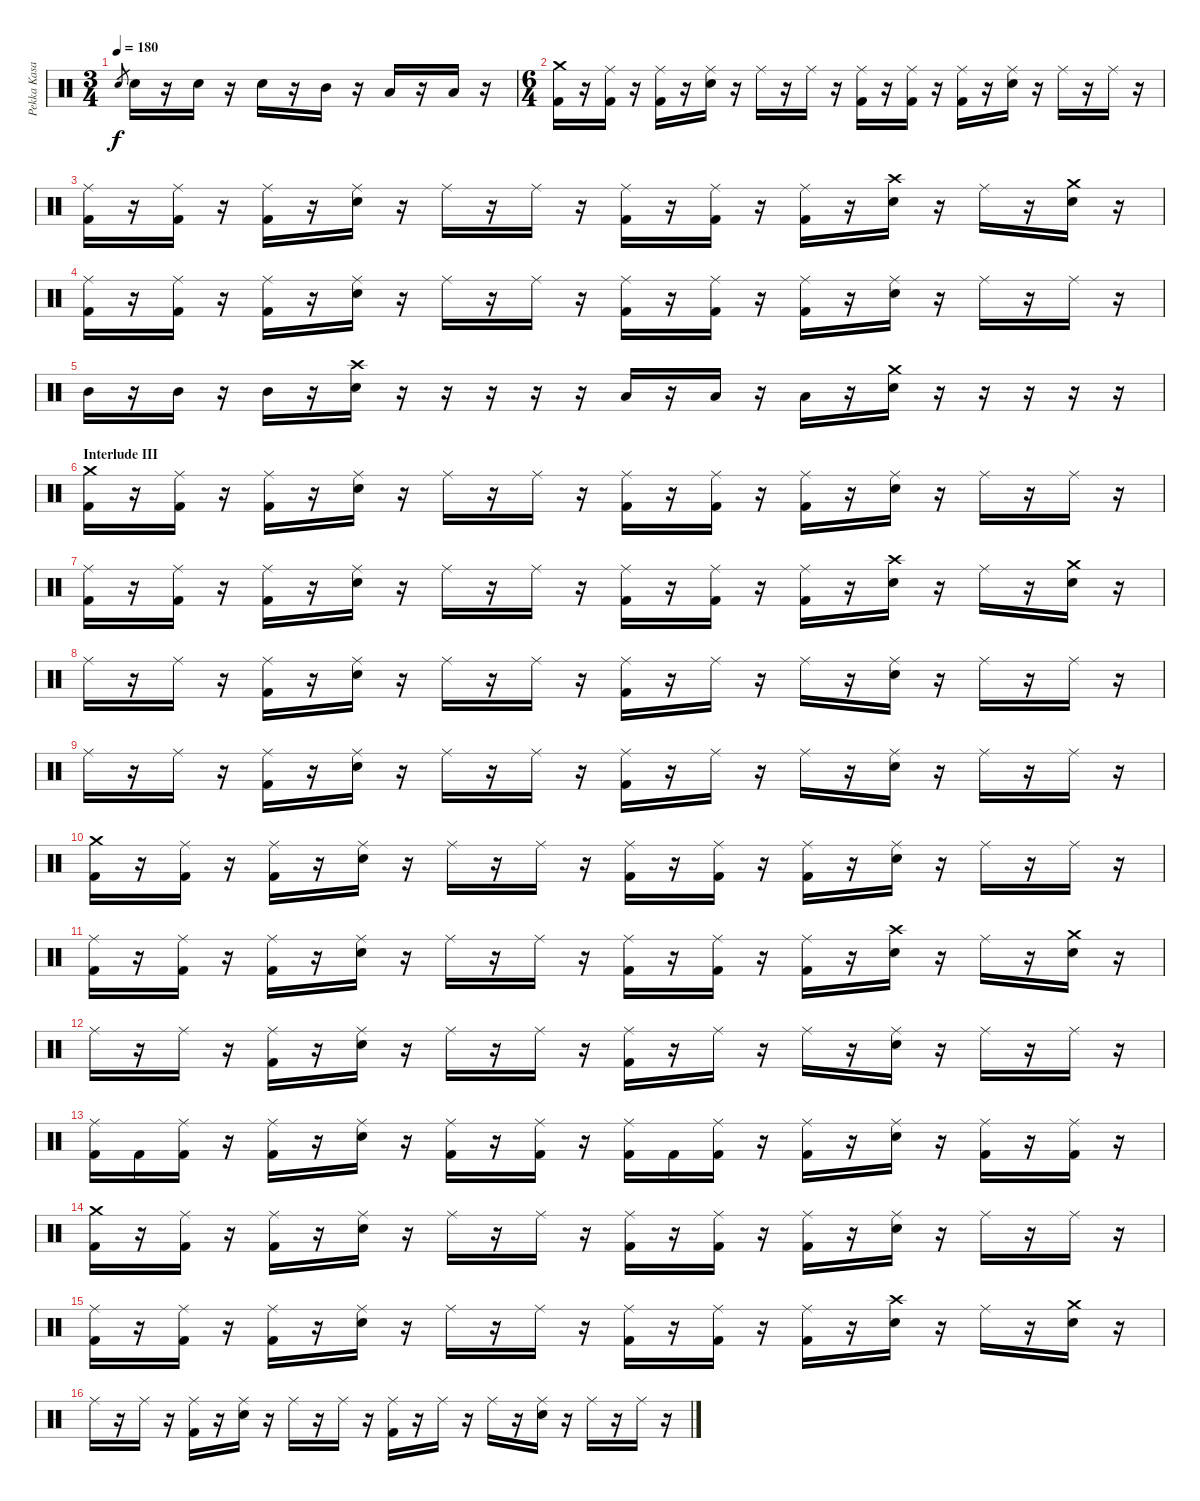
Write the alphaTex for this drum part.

\track ("Pekka Kasari" "Pekka Kasa") {instrument percussion}
\staff {score}
\articulation defaults
\ts (3 4)
\tempo 180
\clef neutral
\ks c "Electric Snare (hit)".8{gr dy f} "Electric Snare (hit)".16
r.16 "Electric Snare (hit)".16 r.16 "Electric Snare (hit)".16 r.16 "Mid Tom (hit)".16 r.16 "Low Tom (hit)".16 r.16 "Low Tom (hit)".16 r.16 |
\ts (6 4)
("Crash medium (hit)" "Kick (hit) 2").16 r.16 ("Ride (middle)" "Kick (hit) 2").16 r.16 ("Ride (middle)" "Kick (hit) 2").16 r.16 ("Ride (middle)" "Electric Snare (hit)").16 r.16 "Ride (middle)".16 r.16 "Ride (middle)".16 r.16 ("Ride (middle)" "Kick (hit) 2").16 r.16 ("Ride (middle)" "Kick (hit) 2").16 r.16 ("Ride (middle)" "Kick (hit) 2").16 r.16 ("Ride (middle)" "Electric Snare (hit)").16 r.16 "Ride (middle)".16 r.16 "Ride (middle)".16 r.16 |
("Ride (middle)" "Kick (hit) 2").16 r.16 ("Ride (middle)" "Kick (hit) 2").16 r.16 ("Ride (middle)" "Kick (hit) 2").16 r.16 ("Ride (middle)" "Electric Snare (hit)").16 r.16 "Ride (middle)".16 r.16 "Ride (middle)".16 r.16 ("Ride (middle)" "Kick (hit) 2").16 r.16 ("Ride (middle)" "Kick (hit) 2").16 r.16 ("Ride (middle)" "Kick (hit) 2").16 r.16 ("Crash high (hit)" "Electric Snare (hit)").16 r.16 "Ride (middle)".16 r.16 ("Crash medium (hit)" "Electric Snare (hit)").16 r.16 |
("Ride (middle)" "Kick (hit) 2").16 r.16 ("Ride (middle)" "Kick (hit) 2").16 r.16 ("Ride (middle)" "Kick (hit) 2").16 r.16 ("Ride (middle)" "Electric Snare (hit)").16 r.16 "Ride (middle)".16 r.16 "Ride (middle)".16 r.16 ("Ride (middle)" "Kick (hit) 2").16 r.16 ("Ride (middle)" "Kick (hit) 2").16 r.16 ("Ride (middle)" "Kick (hit) 2").16 r.16 ("Ride (middle)" "Electric Snare (hit)").16 r.16 "Ride (middle)".16 r.16 "Ride (middle)".16 r.16 |
"Mid Tom (hit)".16 r.16 "Mid Tom (hit)".16 r.16 "Mid Tom (hit)".16 r.16 ("Crash high (hit)" "Electric Snare (hit)").16 r.16 r.16 r.16 r.16 r.16 "Low Tom (hit)".16 r.16 "Low Tom (hit)".16 r.16 "Low Tom (hit)".16 r.16 ("Crash medium (hit)" "Electric Snare (hit)").16 r.16 r.16 r.16 r.16 r.16 |
\section ("" "Interlude III")
("Crash medium (hit)" "Kick (hit) 2").16 r.16 ("Ride (middle)" "Kick (hit) 2").16 r.16 ("Ride (middle)" "Kick (hit) 2").16 r.16 ("Ride (middle)" "Electric Snare (hit)").16 r.16 "Ride (middle)".16 r.16 "Ride (middle)".16 r.16 ("Ride (middle)" "Kick (hit) 2").16 r.16 ("Ride (middle)" "Kick (hit) 2").16 r.16 ("Ride (middle)" "Kick (hit) 2").16 r.16 ("Ride (middle)" "Electric Snare (hit)").16 r.16 "Ride (middle)".16 r.16 "Ride (middle)".16 r.16 |
("Ride (middle)" "Kick (hit) 2").16 r.16 ("Ride (middle)" "Kick (hit) 2").16 r.16 ("Ride (middle)" "Kick (hit) 2").16 r.16 ("Ride (middle)" "Electric Snare (hit)").16 r.16 "Ride (middle)".16 r.16 "Ride (middle)".16 r.16 ("Ride (middle)" "Kick (hit) 2").16 r.16 ("Ride (middle)" "Kick (hit) 2").16 r.16 ("Ride (middle)" "Kick (hit) 2").16 r.16 ("Crash high (hit)" "Electric Snare (hit)").16 r.16 "Ride (middle)".16 r.16 ("Crash medium (hit)" "Electric Snare (hit)").16 r.16 |
"Ride (middle)".16 r.16 "Ride (middle)".16 r.16 ("Ride (middle)" "Kick (hit) 2").16 r.16 ("Ride (middle)" "Electric Snare (hit)").16 r.16 "Ride (middle)".16 r.16 "Ride (middle)".16 r.16 ("Ride (middle)" "Kick (hit) 2").16 r.16 "Ride (middle)".16 r.16 "Ride (middle)".16 r.16 ("Ride (middle)" "Electric Snare (hit)").16 r.16 "Ride (middle)".16 r.16 "Ride (middle)".16 r.16 |
"Ride (middle)".16 r.16 "Ride (middle)".16 r.16 ("Ride (middle)" "Kick (hit) 2").16 r.16 ("Ride (middle)" "Electric Snare (hit)").16 r.16 "Ride (middle)".16 r.16 "Ride (middle)".16 r.16 ("Ride (middle)" "Kick (hit) 2").16 r.16 "Ride (middle)".16 r.16 "Ride (middle)".16 r.16 ("Ride (middle)" "Electric Snare (hit)").16 r.16 "Ride (middle)".16 r.16 "Ride (middle)".16 r.16 |
("Crash medium (hit)" "Kick (hit) 2").16 r.16 ("Ride (middle)" "Kick (hit) 2").16 r.16 ("Ride (middle)" "Kick (hit) 2").16 r.16 ("Ride (middle)" "Electric Snare (hit)").16 r.16 "Ride (middle)".16 r.16 "Ride (middle)".16 r.16 ("Ride (middle)" "Kick (hit) 2").16 r.16 ("Ride (middle)" "Kick (hit) 2").16 r.16 ("Ride (middle)" "Kick (hit) 2").16 r.16 ("Ride (middle)" "Electric Snare (hit)").16 r.16 "Ride (middle)".16 r.16 "Ride (middle)".16 r.16 |
("Ride (middle)" "Kick (hit) 2").16 r.16 ("Ride (middle)" "Kick (hit) 2").16 r.16 ("Ride (middle)" "Kick (hit) 2").16 r.16 ("Ride (middle)" "Electric Snare (hit)").16 r.16 "Ride (middle)".16 r.16 "Ride (middle)".16 r.16 ("Ride (middle)" "Kick (hit) 2").16 r.16 ("Ride (middle)" "Kick (hit) 2").16 r.16 ("Ride (middle)" "Kick (hit) 2").16 r.16 ("Crash high (hit)" "Electric Snare (hit)").16 r.16 "Ride (middle)".16 r.16 ("Crash medium (hit)" "Electric Snare (hit)").16 r.16 |
"Ride (middle)".16 r.16 "Ride (middle)".16 r.16 ("Ride (middle)" "Kick (hit) 2").16 r.16 ("Ride (middle)" "Electric Snare (hit)").16 r.16 "Ride (middle)".16 r.16 "Ride (middle)".16 r.16 ("Ride (middle)" "Kick (hit) 2").16 r.16 "Ride (middle)".16 r.16 "Ride (middle)".16 r.16 ("Ride (middle)" "Electric Snare (hit)").16 r.16 "Ride (middle)".16 r.16 "Ride (middle)".16 r.16 |
("Ride (middle)" "Kick (hit) 2").16 "Kick (hit) 2".16 ("Ride (middle)" "Kick (hit) 2").16 r.16 ("Ride (middle)" "Kick (hit) 2").16 r.16 ("Ride (middle)" "Electric Snare (hit)").16 r.16 ("Ride (middle)" "Kick (hit) 2").16 r.16 ("Ride (middle)" "Kick (hit) 2").16 r.16 ("Ride (middle)" "Kick (hit) 2").16 "Kick (hit) 2".16 ("Ride (middle)" "Kick (hit) 2").16 r.16 ("Ride (middle)" "Kick (hit) 2").16 r.16 ("Ride (middle)" "Electric Snare (hit)").16 r.16 ("Ride (middle)" "Kick (hit) 2").16 r.16 ("Ride (middle)" "Kick (hit) 2").16 r.16 |
("Crash medium (hit)" "Kick (hit) 2").16 r.16 ("Ride (middle)" "Kick (hit) 2").16 r.16 ("Ride (middle)" "Kick (hit) 2").16 r.16 ("Ride (middle)" "Electric Snare (hit)").16 r.16 "Ride (middle)".16 r.16 "Ride (middle)".16 r.16 ("Ride (middle)" "Kick (hit) 2").16 r.16 ("Ride (middle)" "Kick (hit) 2").16 r.16 ("Ride (middle)" "Kick (hit) 2").16 r.16 ("Ride (middle)" "Electric Snare (hit)").16 r.16 "Ride (middle)".16 r.16 "Ride (middle)".16 r.16 |
("Ride (middle)" "Kick (hit) 2").16 r.16 ("Ride (middle)" "Kick (hit) 2").16 r.16 ("Ride (middle)" "Kick (hit) 2").16 r.16 ("Ride (middle)" "Electric Snare (hit)").16 r.16 "Ride (middle)".16 r.16 "Ride (middle)".16 r.16 ("Ride (middle)" "Kick (hit) 2").16 r.16 ("Ride (middle)" "Kick (hit) 2").16 r.16 ("Ride (middle)" "Kick (hit) 2").16 r.16 ("Crash high (hit)" "Electric Snare (hit)").16 r.16 "Ride (middle)".16 r.16 ("Crash medium (hit)" "Electric Snare (hit)").16 r.16 |
"Ride (middle)".16 r.16 "Ride (middle)".16 r.16 ("Ride (middle)" "Kick (hit) 2").16 r.16 ("Ride (middle)" "Electric Snare (hit)").16 r.16 "Ride (middle)".16 r.16 "Ride (middle)".16 r.16 ("Ride (middle)" "Kick (hit) 2").16 r.16 "Ride (middle)".16 r.16 "Ride (middle)".16 r.16 ("Ride (middle)" "Electric Snare (hit)").16 r.16 "Ride (middle)".16 r.16 "Ride (middle)".16 r.16
